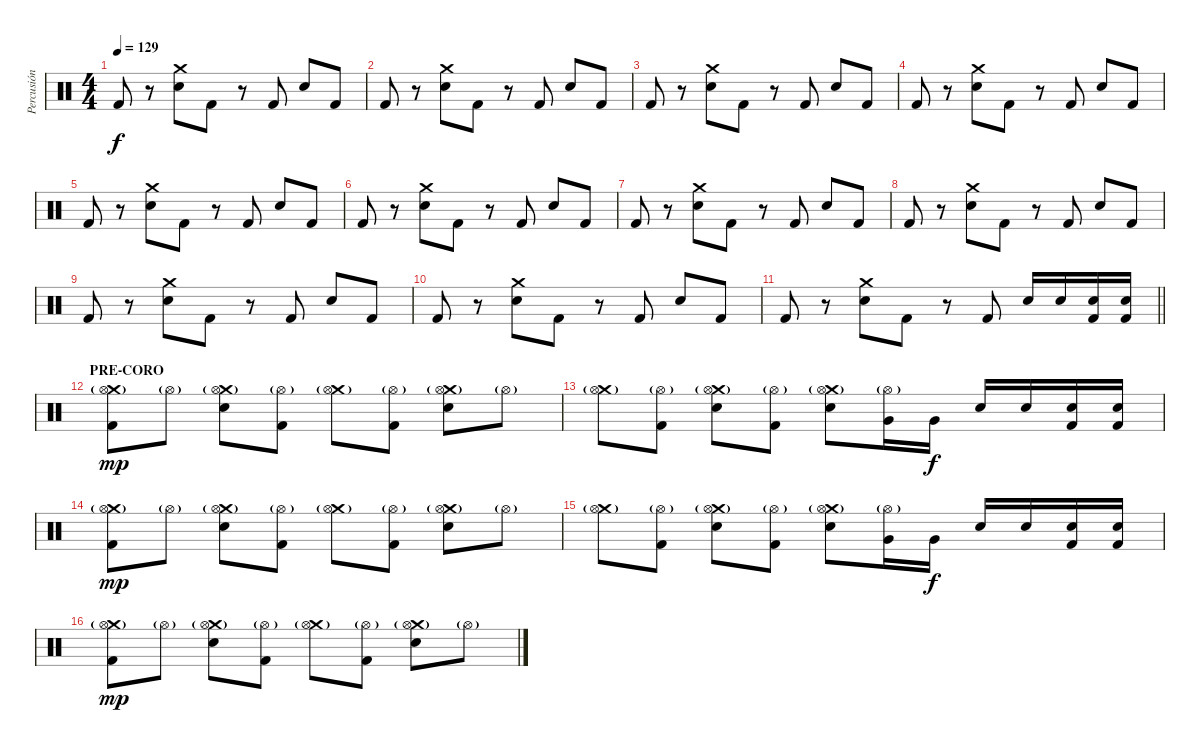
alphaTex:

\track ("Percusión" "Percusión") {instrument percussion}
\staff {score}
\articulation defaults
\ts (4 4)
\tempo 129
\clef neutral
\ks c "Kick (hit) 2".8{dy f}
r.8 ("Crash medium (hit)" "Snare (hit) 2").8 "Kick (hit) 2".8 r.8 "Kick (hit) 2".8 "Snare (hit) 2".8 "Kick (hit) 2".8 |
"Kick (hit) 2".8 r.8 ("Crash medium (hit)" "Snare (hit) 2").8 "Kick (hit) 2".8 r.8 "Kick (hit) 2".8 "Snare (hit) 2".8 "Kick (hit) 2".8 |
"Kick (hit) 2".8 r.8 ("Crash medium (hit)" "Snare (hit) 2").8 "Kick (hit) 2".8 r.8 "Kick (hit) 2".8 "Snare (hit) 2".8 "Kick (hit) 2".8 |
"Kick (hit) 2".8 r.8 ("Crash medium (hit)" "Snare (hit) 2").8 "Kick (hit) 2".8 r.8 "Kick (hit) 2".8 "Snare (hit) 2".8 "Kick (hit) 2".8 |
"Kick (hit) 2".8 r.8 ("Crash medium (hit)" "Snare (hit) 2").8 "Kick (hit) 2".8 r.8 "Kick (hit) 2".8 "Snare (hit) 2".8 "Kick (hit) 2".8 |
"Kick (hit) 2".8 r.8 ("Crash medium (hit)" "Snare (hit) 2").8 "Kick (hit) 2".8 r.8 "Kick (hit) 2".8 "Snare (hit) 2".8 "Kick (hit) 2".8 |
"Kick (hit) 2".8 r.8 ("Crash medium (hit)" "Snare (hit) 2").8 "Kick (hit) 2".8 r.8 "Kick (hit) 2".8 "Snare (hit) 2".8 "Kick (hit) 2".8 |
"Kick (hit) 2".8 r.8 ("Crash medium (hit)" "Snare (hit) 2").8 "Kick (hit) 2".8 r.8 "Kick (hit) 2".8 "Snare (hit) 2".8 "Kick (hit) 2".8 |
"Kick (hit) 2".8 r.8 ("Crash medium (hit)" "Snare (hit) 2").8 "Kick (hit) 2".8 r.8 "Kick (hit) 2".8 "Snare (hit) 2".8 "Kick (hit) 2".8 |
"Kick (hit) 2".8 r.8 ("Crash medium (hit)" "Snare (hit) 2").8 "Kick (hit) 2".8 r.8 "Kick (hit) 2".8 "Snare (hit) 2".8 "Kick (hit) 2".8 |
\barLineRight lightlight "Kick (hit) 2".8
r.8 ("Crash medium (hit)" "Snare (hit) 2").8 "Kick (hit) 2".8 r.8 "Kick (hit) 2".8 "Snare (hit) 2".16 "Snare (hit) 2".16 ("Snare (hit) 2" "Kick (hit) 2").16 ("Snare (hit) 2" "Kick (hit) 2").16 |
\section ("" "PRE-CORO")
("Crash medium (hit)"{g} "Hi-Hat (open)" "Kick (hit) 2").8{dy mp} "Hi-Hat (open)"{g}.8 ("Crash medium (hit)"{g} "Hi-Hat (open)" "Snare (hit) 2").8 ("Hi-Hat (open)"{g} "Kick (hit) 2").8 ("Crash medium (hit)"{g} "Hi-Hat (open)").8 ("Hi-Hat (open)"{g} "Kick (hit) 2").8 ("Crash medium (hit)"{g} "Hi-Hat (open)" "Snare (hit) 2").8 "Hi-Hat (open)"{g}.8 |
("Crash medium (hit)"{g} "Hi-Hat (open)").8 ("Hi-Hat (open)"{g} "Kick (hit) 2").8 ("Crash medium (hit)"{g} "Hi-Hat (open)" "Snare (hit) 2").8 ("Hi-Hat (open)"{g} "Kick (hit) 2").8 ("Crash medium (hit)"{g} "Hi-Hat (open)" "Snare (hit) 2").8 ("Hi-Hat (open)"{g} "Very Low Tom (hit)").16 "Very Low Tom (hit)".16{dy f} "Snare (hit) 2".16 "Snare (hit) 2".16 ("Snare (hit) 2" "Kick (hit) 2").16 ("Snare (hit) 2" "Kick (hit) 2").16 |
("Crash medium (hit)"{g} "Hi-Hat (open)" "Kick (hit) 2").8{dy mp} "Hi-Hat (open)"{g}.8 ("Crash medium (hit)"{g} "Hi-Hat (open)" "Snare (hit) 2").8 ("Hi-Hat (open)"{g} "Kick (hit) 2").8 ("Crash medium (hit)"{g} "Hi-Hat (open)").8 ("Hi-Hat (open)"{g} "Kick (hit) 2").8 ("Crash medium (hit)"{g} "Hi-Hat (open)" "Snare (hit) 2").8 "Hi-Hat (open)"{g}.8 |
("Crash medium (hit)"{g} "Hi-Hat (open)").8 ("Hi-Hat (open)"{g} "Kick (hit) 2").8 ("Crash medium (hit)"{g} "Hi-Hat (open)" "Snare (hit) 2").8 ("Hi-Hat (open)"{g} "Kick (hit) 2").8 ("Crash medium (hit)"{g} "Hi-Hat (open)" "Snare (hit) 2").8 ("Hi-Hat (open)"{g} "Very Low Tom (hit)").16 "Very Low Tom (hit)".16{dy f} "Snare (hit) 2".16 "Snare (hit) 2".16 ("Snare (hit) 2" "Kick (hit) 2").16 ("Snare (hit) 2" "Kick (hit) 2").16 |
("Crash medium (hit)"{g} "Hi-Hat (open)" "Kick (hit) 2").8{dy mp} "Hi-Hat (open)"{g}.8 ("Crash medium (hit)"{g} "Hi-Hat (open)" "Snare (hit) 2").8 ("Hi-Hat (open)"{g} "Kick (hit) 2").8 ("Crash medium (hit)"{g} "Hi-Hat (open)").8 ("Hi-Hat (open)"{g} "Kick (hit) 2").8 ("Crash medium (hit)"{g} "Hi-Hat (open)" "Snare (hit) 2").8 "Hi-Hat (open)"{g}.8
